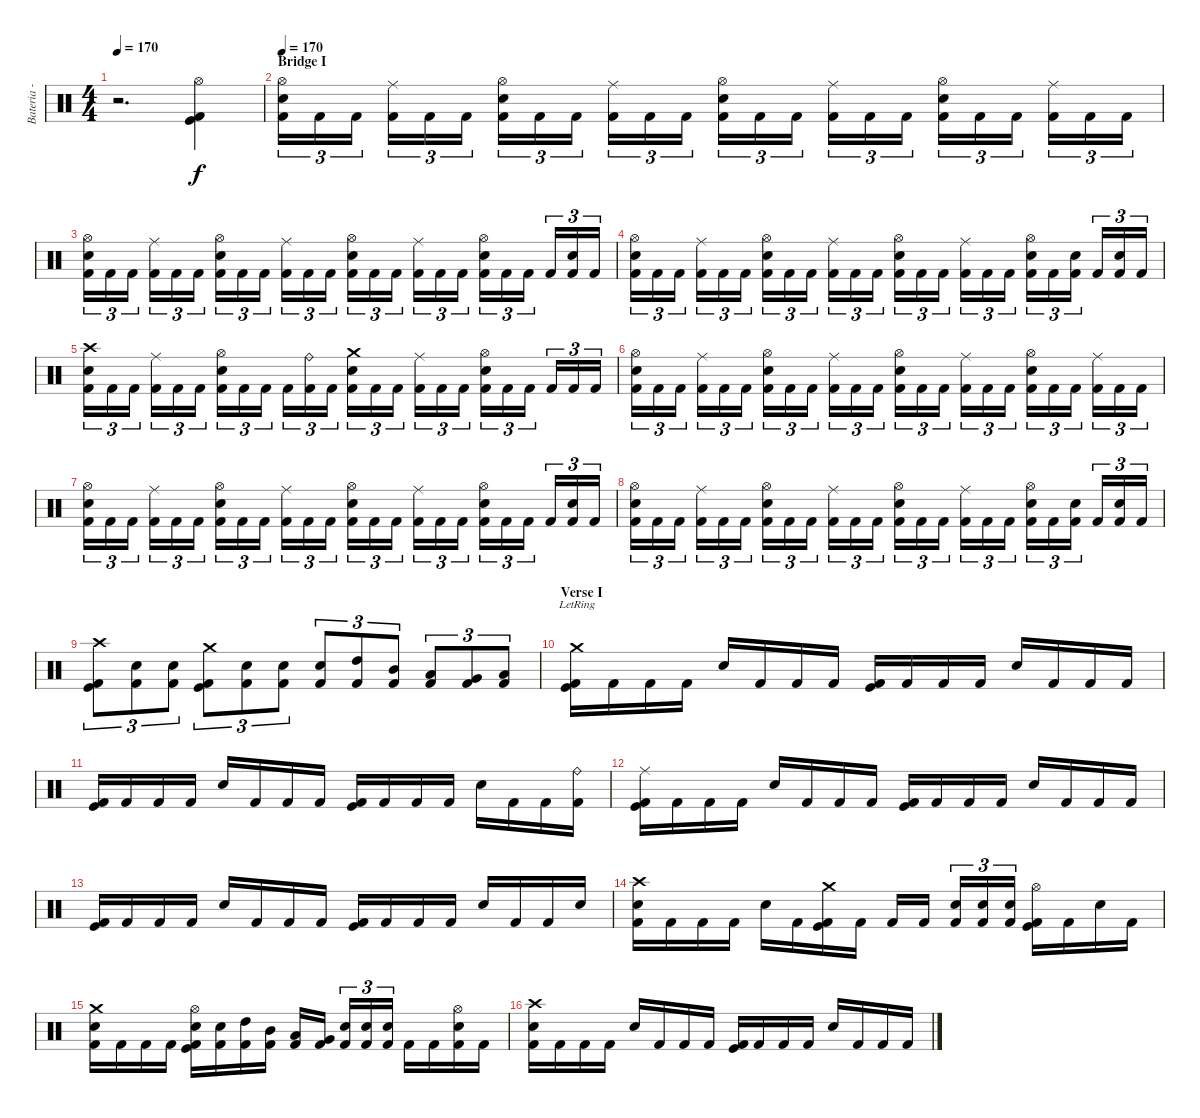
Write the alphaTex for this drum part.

\track ("Bateria - Drums" "Bateria - ") {instrument percussion}
\staff {score}
\articulation defaults
\ts (4 4)
\tempo 170
\clef neutral
\ks c
r.2{d dy f} ("Hi-Hat (open)" "Kick (hit)" "Kick (hit) 2").4 |
\section ("" "Bridge I")
\tempo 170
("Hi-Hat (open)" "Snare (hit) 2" "Kick (hit) 2").16{tu (3 2)} "Kick (hit) 2".16{tu (3 2)} "Kick (hit) 2".16{tu (3 2)} ("Ride (middle)" "Kick (hit) 2").16{tu (3 2)} "Kick (hit) 2".16{tu (3 2)} "Kick (hit) 2".16{tu (3 2)} ("Hi-Hat (open)" "Electric Snare (hit)" "Kick (hit) 2").16{tu (3 2)} "Kick (hit) 2".16{tu (3 2)} "Kick (hit) 2".16{tu (3 2)} ("Ride (middle)" "Kick (hit) 2").16{tu (3 2)} "Kick (hit) 2".16{tu (3 2)} "Kick (hit) 2".16{tu (3 2)} ("Hi-Hat (open)" "Snare (hit) 2" "Kick (hit) 2").16{tu (3 2)} "Kick (hit) 2".16{tu (3 2)} "Kick (hit) 2".16{tu (3 2)} ("Ride (middle)" "Kick (hit) 2").16{tu (3 2)} "Kick (hit) 2".16{tu (3 2)} "Kick (hit) 2".16{tu (3 2)} ("Hi-Hat (open)" "Electric Snare (hit)" "Kick (hit) 2").16{tu (3 2)} "Kick (hit) 2".16{tu (3 2)} "Kick (hit) 2".16{tu (3 2)} ("Ride (middle)" "Kick (hit) 2").16{tu (3 2)} "Kick (hit) 2".16{tu (3 2)} "Kick (hit) 2".16{tu (3 2)} |
("Hi-Hat (open)" "Snare (hit) 2" "Kick (hit) 2").16{tu (3 2)} "Kick (hit) 2".16{tu (3 2)} "Kick (hit) 2".16{tu (3 2)} ("Ride (middle)" "Kick (hit) 2").16{tu (3 2)} "Kick (hit) 2".16{tu (3 2)} "Kick (hit) 2".16{tu (3 2)} ("Hi-Hat (open)" "Electric Snare (hit)" "Kick (hit) 2").16{tu (3 2)} "Kick (hit) 2".16{tu (3 2)} "Kick (hit) 2".16{tu (3 2)} ("Ride (middle)" "Kick (hit) 2").16{tu (3 2)} "Kick (hit) 2".16{tu (3 2)} "Kick (hit) 2".16{tu (3 2)} ("Hi-Hat (open)" "Snare (hit) 2" "Kick (hit) 2").16{tu (3 2)} "Kick (hit) 2".16{tu (3 2)} "Kick (hit) 2".16{tu (3 2)} ("Ride (middle)" "Kick (hit) 2").16{tu (3 2)} "Kick (hit) 2".16{tu (3 2)} "Kick (hit) 2".16{tu (3 2)} ("Hi-Hat (open)" "Electric Snare (hit)" "Kick (hit) 2").16{tu (3 2)} "Kick (hit) 2".16{tu (3 2)} "Kick (hit) 2".16{tu (3 2)} "Kick (hit) 2".16{tu (3 2)} ("Electric Snare (hit)" "Kick (hit) 2").16{tu (3 2)} "Kick (hit) 2".16{tu (3 2)} |
("Hi-Hat (open)" "Snare (hit) 2" "Kick (hit) 2").16{tu (3 2)} "Kick (hit) 2".16{tu (3 2)} "Kick (hit) 2".16{tu (3 2)} ("Ride (middle)" "Kick (hit) 2").16{tu (3 2)} "Kick (hit) 2".16{tu (3 2)} "Kick (hit) 2".16{tu (3 2)} ("Hi-Hat (open)" "Electric Snare (hit)" "Kick (hit) 2").16{tu (3 2)} "Kick (hit) 2".16{tu (3 2)} "Kick (hit) 2".16{tu (3 2)} ("Ride (middle)" "Kick (hit) 2").16{tu (3 2)} "Kick (hit) 2".16{tu (3 2)} "Kick (hit) 2".16{tu (3 2)} ("Hi-Hat (open)" "Snare (hit) 2" "Kick (hit) 2").16{tu (3 2)} "Kick (hit) 2".16{tu (3 2)} "Kick (hit) 2".16{tu (3 2)} ("Ride (middle)" "Kick (hit) 2").16{tu (3 2)} "Kick (hit) 2".16{tu (3 2)} "Kick (hit) 2".16{tu (3 2)} ("Hi-Hat (open)" "Electric Snare (hit)" "Kick (hit) 2").16{tu (3 2)} "Kick (hit) 2".16{tu (3 2)} ("Electric Snare (hit)" "Kick (hit) 2").16{tu (3 2)} "Kick (hit) 2".16{tu (3 2)} ("Electric Snare (hit)" "Kick (hit) 2").16{tu (3 2)} "Kick (hit) 2".16{tu (3 2)} |
("Crash high (hit)" "Snare (hit) 2" "Kick (hit) 2").16{tu (3 2)} "Kick (hit) 2".16{tu (3 2)} "Kick (hit) 2".16{tu (3 2)} ("Ride (middle)" "Kick (hit) 2").16{tu (3 2)} "Kick (hit) 2".16{tu (3 2)} "Kick (hit) 2".16{tu (3 2)} ("Hi-Hat (open)" "Electric Snare (hit)" "Kick (hit) 2").16{tu (3 2)} "Kick (hit) 2".16{tu (3 2)} "Kick (hit) 2".16{tu (3 2)} "Kick (hit) 2".16{tu (3 2)} ("Ride (bell)" "Kick (hit) 2").16{tu (3 2)} "Kick (hit) 2".16{tu (3 2)} ("Crash medium (hit)" "Snare (hit) 2" "Kick (hit) 2").16{tu (3 2)} "Kick (hit) 2".16{tu (3 2)} "Kick (hit) 2".16{tu (3 2)} ("Ride (middle)" "Kick (hit) 2").16{tu (3 2)} "Kick (hit) 2".16{tu (3 2)} "Kick (hit) 2".16{tu (3 2)} ("Hi-Hat (open)" "Electric Snare (hit)" "Kick (hit) 2").16{tu (3 2)} "Kick (hit) 2".16{tu (3 2)} "Kick (hit) 2".16{tu (3 2)} "Kick (hit) 2".16{tu (3 2)} "Kick (hit) 2".16{tu (3 2)} "Kick (hit) 2".16{tu (3 2)} |
("Hi-Hat (open)" "Snare (hit) 2" "Kick (hit) 2").16{tu (3 2)} "Kick (hit) 2".16{tu (3 2)} "Kick (hit) 2".16{tu (3 2)} ("Ride (middle)" "Kick (hit) 2").16{tu (3 2)} "Kick (hit) 2".16{tu (3 2)} "Kick (hit) 2".16{tu (3 2)} ("Hi-Hat (open)" "Electric Snare (hit)" "Kick (hit) 2").16{tu (3 2)} "Kick (hit) 2".16{tu (3 2)} "Kick (hit) 2".16{tu (3 2)} ("Ride (middle)" "Kick (hit) 2").16{tu (3 2)} "Kick (hit) 2".16{tu (3 2)} "Kick (hit) 2".16{tu (3 2)} ("Hi-Hat (open)" "Snare (hit) 2" "Kick (hit) 2").16{tu (3 2)} "Kick (hit) 2".16{tu (3 2)} "Kick (hit) 2".16{tu (3 2)} ("Ride (middle)" "Kick (hit) 2").16{tu (3 2)} "Kick (hit) 2".16{tu (3 2)} "Kick (hit) 2".16{tu (3 2)} ("Hi-Hat (open)" "Electric Snare (hit)" "Kick (hit) 2").16{tu (3 2)} "Kick (hit) 2".16{tu (3 2)} "Kick (hit) 2".16{tu (3 2)} ("Ride (middle)" "Kick (hit) 2").16{tu (3 2)} "Kick (hit) 2".16{tu (3 2)} "Kick (hit) 2".16{tu (3 2)} |
("Hi-Hat (open)" "Snare (hit) 2" "Kick (hit) 2").16{tu (3 2)} "Kick (hit) 2".16{tu (3 2)} "Kick (hit) 2".16{tu (3 2)} ("Ride (middle)" "Kick (hit) 2").16{tu (3 2)} "Kick (hit) 2".16{tu (3 2)} "Kick (hit) 2".16{tu (3 2)} ("Hi-Hat (open)" "Electric Snare (hit)" "Kick (hit) 2").16{tu (3 2)} "Kick (hit) 2".16{tu (3 2)} "Kick (hit) 2".16{tu (3 2)} ("Ride (middle)" "Kick (hit) 2").16{tu (3 2)} "Kick (hit) 2".16{tu (3 2)} "Kick (hit) 2".16{tu (3 2)} ("Hi-Hat (open)" "Snare (hit) 2" "Kick (hit) 2").16{tu (3 2)} "Kick (hit) 2".16{tu (3 2)} "Kick (hit) 2".16{tu (3 2)} ("Ride (middle)" "Kick (hit) 2").16{tu (3 2)} "Kick (hit) 2".16{tu (3 2)} "Kick (hit) 2".16{tu (3 2)} ("Hi-Hat (open)" "Electric Snare (hit)" "Kick (hit) 2").16{tu (3 2)} "Kick (hit) 2".16{tu (3 2)} "Kick (hit) 2".16{tu (3 2)} "Kick (hit) 2".16{tu (3 2)} ("Electric Snare (hit)" "Kick (hit) 2").16{tu (3 2)} "Kick (hit) 2".16{tu (3 2)} |
("Hi-Hat (open)" "Snare (hit) 2" "Kick (hit) 2").16{tu (3 2)} "Kick (hit) 2".16{tu (3 2)} "Kick (hit) 2".16{tu (3 2)} ("Ride (middle)" "Kick (hit) 2").16{tu (3 2)} "Kick (hit) 2".16{tu (3 2)} "Kick (hit) 2".16{tu (3 2)} ("Hi-Hat (open)" "Electric Snare (hit)" "Kick (hit) 2").16{tu (3 2)} "Kick (hit) 2".16{tu (3 2)} "Kick (hit) 2".16{tu (3 2)} ("Ride (middle)" "Kick (hit) 2").16{tu (3 2)} "Kick (hit) 2".16{tu (3 2)} "Kick (hit) 2".16{tu (3 2)} ("Hi-Hat (open)" "Snare (hit) 2" "Kick (hit) 2").16{tu (3 2)} "Kick (hit) 2".16{tu (3 2)} "Kick (hit) 2".16{tu (3 2)} ("Ride (middle)" "Kick (hit) 2").16{tu (3 2)} "Kick (hit) 2".16{tu (3 2)} "Kick (hit) 2".16{tu (3 2)} ("Hi-Hat (open)" "Electric Snare (hit)" "Kick (hit) 2").16{tu (3 2)} "Kick (hit) 2".16{tu (3 2)} ("Electric Snare (hit)" "Kick (hit) 2").16{tu (3 2)} "Kick (hit) 2".16{tu (3 2)} ("Electric Snare (hit)" "Kick (hit) 2").16{tu (3 2)} "Kick (hit) 2".16{tu (3 2)} |
("Crash high (hit)" "Kick (hit)" "Kick (hit) 2").8{tu (3 2)} ("Electric Snare (hit)" "Kick (hit) 2").8{tu (3 2)} ("Electric Snare (hit)" "Kick (hit) 2").8{tu (3 2)} ("Crash medium (hit)" "Kick (hit)" "Kick (hit) 2").8{tu (3 2)} ("Snare (hit) 2" "Kick (hit) 2").8{tu (3 2)} ("Snare (hit) 2" "Kick (hit) 2").8{tu (3 2)} ("Snare (hit) 2" "Kick (hit) 2").8{tu (3 2)} ("High Tom (hit)" "Kick (hit) 2").8{tu (3 2)} ("Mid Tom (hit)" "Kick (hit) 2").8{tu (3 2)} ("Low Tom (hit)" "Kick (hit) 2").8{tu (3 2)} ("Very Low Tom (hit)" "Kick (hit) 2").8{tu (3 2)} ("Low Floor Tom (hit)" "Kick (hit) 2").8{tu (3 2)} |
\section ("" "Verse I")
("Crash medium (hit)"{lr} "Kick (hit)" "Kick (hit) 2").16 "Kick (hit) 2".16 "Kick (hit) 2".16 "Kick (hit) 2".16 "Snare (hit) 2".16 "Kick (hit) 2".16 "Kick (hit) 2".16 "Kick (hit) 2".16 ("Kick (hit)" "Kick (hit) 2").16 "Kick (hit) 2".16 "Kick (hit) 2".16 "Kick (hit) 2".16 "Snare (hit) 2".16 "Kick (hit) 2".16 "Kick (hit) 2".16 "Kick (hit) 2".16 |
("Kick (hit)" "Kick (hit) 2").16 "Kick (hit) 2".16 "Kick (hit) 2".16 "Kick (hit) 2".16 "Snare (hit) 2".16 "Kick (hit) 2".16 "Kick (hit) 2".16 "Kick (hit) 2".16 ("Kick (hit)" "Kick (hit) 2").16 "Kick (hit) 2".16 "Kick (hit) 2".16 "Kick (hit) 2".16 "Snare (hit) 2".16 "Kick (hit) 2".16 "Kick (hit) 2".16 ("Ride (bell)" "Kick (hit) 2").16 |
("Ride (middle)" "Kick (hit)" "Kick (hit) 2").16 "Kick (hit) 2".16 "Kick (hit) 2".16 "Kick (hit) 2".16 "Snare (hit) 2".16 "Kick (hit) 2".16 "Kick (hit) 2".16 "Kick (hit) 2".16 ("Kick (hit)" "Kick (hit) 2").16 "Kick (hit) 2".16 "Kick (hit) 2".16 "Kick (hit) 2".16 "Snare (hit) 2".16 "Kick (hit) 2".16 "Kick (hit) 2".16 "Kick (hit) 2".16 |
("Kick (hit)" "Kick (hit) 2").16 "Kick (hit) 2".16 "Kick (hit) 2".16 "Kick (hit) 2".16 "Snare (hit) 2".16 "Kick (hit) 2".16 "Kick (hit) 2".16 "Kick (hit) 2".16 ("Kick (hit)" "Kick (hit) 2").16 "Kick (hit) 2".16 "Kick (hit) 2".16 "Kick (hit) 2".16 "Snare (hit) 2".16 "Kick (hit) 2".16 "Kick (hit) 2".16 "Snare (hit) 2".16 |
("Crash high (hit)" "Snare (hit) 2" "Kick (hit) 2").16 "Kick (hit) 2".16 "Kick (hit) 2".16 "Kick (hit) 2".16 "Snare (hit) 2".16 "Kick (hit) 2".16 ("Crash medium (hit)" "Kick (hit)" "Kick (hit) 2").16 "Kick (hit) 2".16 "Kick (hit) 2".16 "Kick (hit) 2".16 ("Snare (hit) 2" "Kick (hit) 2").16{tu (3 2)} ("Snare (hit) 2" "Kick (hit) 2").16{tu (3 2)} ("Snare (hit) 2" "Kick (hit) 2").16{tu (3 2)} ("Hi-Hat (open)" "Kick (hit)" "Kick (hit) 2").16 "Kick (hit) 2".16 "Snare (hit) 2".16 "Kick (hit) 2".16 |
("Crash medium (hit)" "Snare (hit) 2" "Kick (hit) 2").16 "Kick (hit) 2".16 "Kick (hit) 2".16 "Kick (hit) 2".16 ("Hi-Hat (open)" "Snare (hit) 2" "Kick (hit)" "Kick (hit) 2").16 ("Snare (hit) 2" "Kick (hit) 2").16 ("High Tom (hit)" "Kick (hit) 2").16 ("Mid Tom (hit)" "Kick (hit) 2").16 ("Low Tom (hit)" "Kick (hit) 2").16 ("Very Low Tom (hit)" "Kick (hit) 2").16 ("Electric Snare (hit)" "Kick (hit) 2").16{tu (3 2)} ("Electric Snare (hit)" "Kick (hit) 2").16{tu (3 2)} ("Electric Snare (hit)" "Kick (hit) 2").16{tu (3 2)} "Kick (hit) 2".16 "Kick (hit) 2".16 ("Hi-Hat (open)" "Snare (hit) 2" "Kick (hit) 2").16 "Kick (hit) 2".16 |
("Crash high (hit)" "Snare (hit) 2" "Kick (hit) 2").16 "Kick (hit) 2".16 "Kick (hit) 2".16 "Kick (hit) 2".16 "Snare (hit) 2".16 "Kick (hit) 2".16 "Kick (hit) 2".16 "Kick (hit) 2".16 ("Kick (hit)" "Kick (hit) 2").16 "Kick (hit) 2".16 "Kick (hit) 2".16 "Kick (hit) 2".16 "Snare (hit) 2".16 "Kick (hit) 2".16 "Kick (hit) 2".16 "Kick (hit) 2".16
